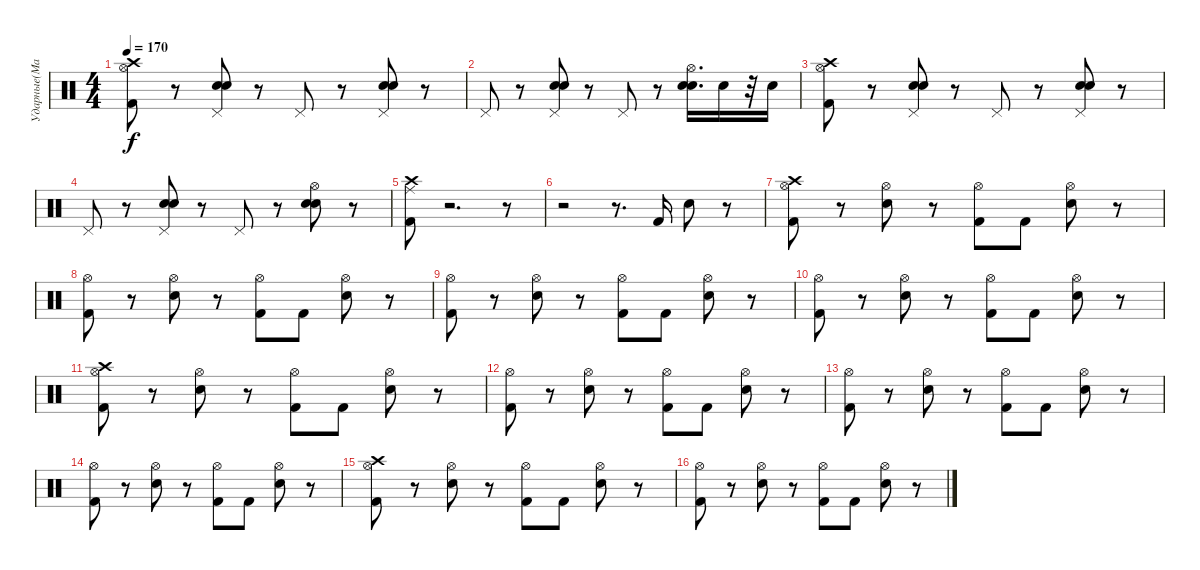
\track ("Ударные(Май)" "Ударные(Ма") {instrument percussion}
\staff {score}
\articulation defaults
\ts (4 4)
\tempo 170
\clef neutral
\ks c
("Crash high (hit)" "Kick (hit) 2" "Hi-Hat (open)").8{dy f} r.8 ("Electric Snare (hit)" "Electric Snare (hit)" "Pedal Hi-Hat (hit)").8 r.8 "Pedal Hi-Hat (hit)".8 r.8 ("Electric Snare (hit)" "Electric Snare (hit)" "Pedal Hi-Hat (hit)").8 r.8 |
"Pedal Hi-Hat (hit)".8 r.8 ("Electric Snare (hit)" "Electric Snare (hit)" "Pedal Hi-Hat (hit)").8 r.8 "Pedal Hi-Hat (hit)".8 r.8 ("Electric Snare (hit)" "Electric Snare (hit)" "Hi-Hat (open)").16{d} "Electric Snare (hit)".16 r.32 "Electric Snare (hit)".16 |
("Crash high (hit)" "Kick (hit) 2" "Hi-Hat (open)").8 r.8 ("Electric Snare (hit)" "Electric Snare (hit)" "Pedal Hi-Hat (hit)").8 r.8 "Pedal Hi-Hat (hit)".8 r.8 ("Electric Snare (hit)" "Electric Snare (hit)" "Pedal Hi-Hat (hit)").8 r.8 |
"Pedal Hi-Hat (hit)".8 r.8 ("Electric Snare (hit)" "Electric Snare (hit)" "Pedal Hi-Hat (hit)").8 r.8 "Pedal Hi-Hat (hit)".8 r.8 ("Electric Snare (hit)" "Electric Snare (hit)" "Hi-Hat (open)").8 r.8 |
("Ride (middle)" "Crash high (hit)" "Kick (hit) 2").8 r.2{d} r.8 |
r.2 r.8{d} "Kick (hit) 2".16 "Electric Snare (hit)".8 r.8 |
("Crash high (hit)" "Hi-Hat (open)" "Kick (hit) 2").8 r.8 ("Electric Snare (hit)" "Hi-Hat (open)").8 r.8 ("Kick (hit) 2" "Hi-Hat (open)").8 "Kick (hit) 2".8 ("Electric Snare (hit)" "Hi-Hat (open)").8 r.8 |
("Hi-Hat (open)" "Kick (hit) 2").8 r.8 ("Electric Snare (hit)" "Hi-Hat (open)").8 r.8 ("Kick (hit) 2" "Hi-Hat (open)").8 "Kick (hit) 2".8 ("Electric Snare (hit)" "Hi-Hat (open)").8 r.8 |
("Hi-Hat (open)" "Kick (hit) 2").8 r.8 ("Electric Snare (hit)" "Hi-Hat (open)").8 r.8 ("Kick (hit) 2" "Hi-Hat (open)").8 "Kick (hit) 2".8 ("Electric Snare (hit)" "Hi-Hat (open)").8 r.8 |
("Hi-Hat (open)" "Kick (hit) 2").8 r.8 ("Electric Snare (hit)" "Hi-Hat (open)").8 r.8 ("Kick (hit) 2" "Hi-Hat (open)").8 "Kick (hit) 2".8 ("Electric Snare (hit)" "Hi-Hat (open)").8 r.8 |
("Crash high (hit)" "Hi-Hat (open)" "Kick (hit) 2").8 r.8 ("Electric Snare (hit)" "Hi-Hat (open)").8 r.8 ("Kick (hit) 2" "Hi-Hat (open)").8 "Kick (hit) 2".8 ("Electric Snare (hit)" "Hi-Hat (open)").8 r.8 |
("Hi-Hat (open)" "Kick (hit) 2").8 r.8 ("Electric Snare (hit)" "Hi-Hat (open)").8 r.8 ("Kick (hit) 2" "Hi-Hat (open)").8 "Kick (hit) 2".8 ("Electric Snare (hit)" "Hi-Hat (open)").8 r.8 |
("Hi-Hat (open)" "Kick (hit) 2").8 r.8 ("Electric Snare (hit)" "Hi-Hat (open)").8 r.8 ("Kick (hit) 2" "Hi-Hat (open)").8 "Kick (hit) 2".8 ("Electric Snare (hit)" "Hi-Hat (open)").8 r.8 |
("Hi-Hat (open)" "Kick (hit) 2").8 r.8 ("Electric Snare (hit)" "Hi-Hat (open)").8 r.8 ("Kick (hit) 2" "Hi-Hat (open)").8 "Kick (hit) 2".8 ("Electric Snare (hit)" "Hi-Hat (open)").8 r.8 |
("Crash high (hit)" "Hi-Hat (open)" "Kick (hit) 2").8 r.8 ("Electric Snare (hit)" "Hi-Hat (open)").8 r.8 ("Kick (hit) 2" "Hi-Hat (open)").8 "Kick (hit) 2".8 ("Electric Snare (hit)" "Hi-Hat (open)").8 r.8 |
("Hi-Hat (open)" "Kick (hit) 2").8 r.8 ("Electric Snare (hit)" "Hi-Hat (open)").8 r.8 ("Kick (hit) 2" "Hi-Hat (open)").8 "Kick (hit) 2".8 ("Electric Snare (hit)" "Hi-Hat (open)").8 r.8
